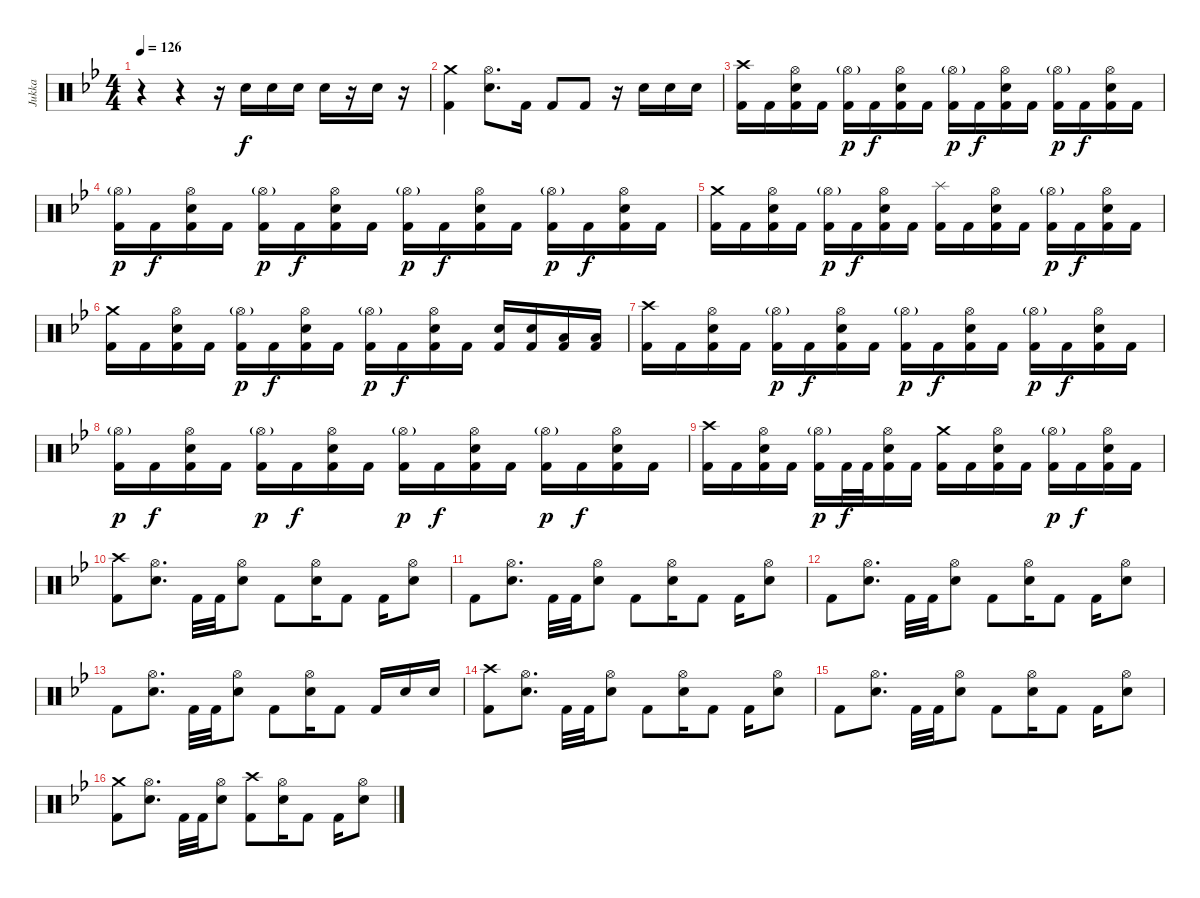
\track ("Jukka" "Jukka") {instrument percussion}
\staff {score}
\articulation defaults
\ts (4 4)
\tempo 126
\clef neutral
\ks gminor
r.4{dy f} r.4 r.16 "Electric Snare (hit)".16 "Electric Snare (hit)".16 "Electric Snare (hit)".16 "Electric Snare (hit)".16 r.16 "Electric Snare (hit)".16 r.16 |
("Crash medium (hit)" "Kick (hit) 2").4 ("Hi-Hat (open)" "Electric Snare (hit)").8{d} "Kick (hit) 2".16 "Kick (hit) 2".8 "Kick (hit) 2".8 r.16 "Electric Snare (hit)".16 "Electric Snare (hit)".16 "Electric Snare (hit)".16 |
("Crash high (hit)" "Kick (hit) 2").16 "Kick (hit) 2".16 ("Hi-Hat (open)" "Electric Snare (hit)" "Kick (hit) 2").16 "Kick (hit) 2".16 ("Hi-Hat (open)"{g} "Kick (hit) 2").16{dy p} "Kick (hit) 2".16{dy f} ("Hi-Hat (open)" "Electric Snare (hit)" "Kick (hit) 2").16 "Kick (hit) 2".16 ("Hi-Hat (open)"{g} "Kick (hit) 2").16{dy p} "Kick (hit) 2".16{dy f} ("Hi-Hat (open)" "Electric Snare (hit)" "Kick (hit) 2").16 "Kick (hit) 2".16 ("Hi-Hat (open)"{g} "Kick (hit) 2").16{dy p} "Kick (hit) 2".16{dy f} ("Hi-Hat (open)" "Electric Snare (hit)" "Kick (hit) 2").16 "Kick (hit) 2".16 |
("Hi-Hat (open)"{g} "Kick (hit) 2").16{dy p} "Kick (hit) 2".16{dy f} ("Hi-Hat (open)" "Electric Snare (hit)" "Kick (hit) 2").16 "Kick (hit) 2".16 ("Hi-Hat (open)"{g} "Kick (hit) 2").16{dy p} "Kick (hit) 2".16{dy f} ("Hi-Hat (open)" "Electric Snare (hit)" "Kick (hit) 2").16 "Kick (hit) 2".16 ("Hi-Hat (open)"{g} "Kick (hit) 2").16{dy p} "Kick (hit) 2".16{dy f} ("Hi-Hat (open)" "Electric Snare (hit)" "Kick (hit) 2").16 "Kick (hit) 2".16 ("Hi-Hat (open)"{g} "Kick (hit) 2").16{dy p} "Kick (hit) 2".16{dy f} ("Hi-Hat (open)" "Electric Snare (hit)" "Kick (hit) 2").16 "Kick (hit) 2".16 |
("Crash medium (hit)" "Kick (hit) 2").16 "Kick (hit) 2".16 ("Hi-Hat (open)" "Electric Snare (hit)" "Kick (hit) 2").16 "Kick (hit) 2".16 ("Hi-Hat (open)"{g} "Kick (hit) 2").16{dy p} "Kick (hit) 2".16{dy f} ("Hi-Hat (open)" "Electric Snare (hit)" "Kick (hit) 2").16 "Kick (hit) 2".16 ("Splash (hit)" "Kick (hit) 2").16 "Kick (hit) 2".16 ("Hi-Hat (open)" "Electric Snare (hit)" "Kick (hit) 2").16 "Kick (hit) 2".16 ("Hi-Hat (open)"{g} "Kick (hit) 2").16{dy p} "Kick (hit) 2".16{dy f} ("Hi-Hat (open)" "Electric Snare (hit)" "Kick (hit) 2").16 "Kick (hit) 2".16 |
("Crash medium (hit)" "Kick (hit) 2").16 "Kick (hit) 2".16 ("Hi-Hat (open)" "Electric Snare (hit)" "Kick (hit) 2").16 "Kick (hit) 2".16 ("Hi-Hat (open)"{g} "Kick (hit) 2").16{dy p} "Kick (hit) 2".16{dy f} ("Hi-Hat (open)" "Electric Snare (hit)" "Kick (hit) 2").16 "Kick (hit) 2".16 ("Hi-Hat (open)"{g} "Kick (hit) 2").16{dy p} "Kick (hit) 2".16{dy f} ("Hi-Hat (open)" "Electric Snare (hit)" "Kick (hit) 2").16 "Kick (hit) 2".16 ("Electric Snare (hit)" "Kick (hit) 2").16 ("Electric Snare (hit)" "Kick (hit) 2").16 ("Low Tom (hit)" "Kick (hit) 2").16 ("Low Tom (hit)" "Kick (hit) 2").16 |
("Crash high (hit)" "Kick (hit) 2").16 "Kick (hit) 2".16 ("Hi-Hat (open)" "Electric Snare (hit)" "Kick (hit) 2").16 "Kick (hit) 2".16 ("Hi-Hat (open)"{g} "Kick (hit) 2").16{dy p} "Kick (hit) 2".16{dy f} ("Hi-Hat (open)" "Electric Snare (hit)" "Kick (hit) 2").16 "Kick (hit) 2".16 ("Hi-Hat (open)"{g} "Kick (hit) 2").16{dy p} "Kick (hit) 2".16{dy f} ("Hi-Hat (open)" "Electric Snare (hit)" "Kick (hit) 2").16 "Kick (hit) 2".16 ("Hi-Hat (open)"{g} "Kick (hit) 2").16{dy p} "Kick (hit) 2".16{dy f} ("Hi-Hat (open)" "Electric Snare (hit)" "Kick (hit) 2").16 "Kick (hit) 2".16 |
("Hi-Hat (open)"{g} "Kick (hit) 2").16{dy p} "Kick (hit) 2".16{dy f} ("Hi-Hat (open)" "Electric Snare (hit)" "Kick (hit) 2").16 "Kick (hit) 2".16 ("Hi-Hat (open)"{g} "Kick (hit) 2").16{dy p} "Kick (hit) 2".16{dy f} ("Hi-Hat (open)" "Electric Snare (hit)" "Kick (hit) 2").16 "Kick (hit) 2".16 ("Hi-Hat (open)"{g} "Kick (hit) 2").16{dy p} "Kick (hit) 2".16{dy f} ("Hi-Hat (open)" "Electric Snare (hit)" "Kick (hit) 2").16 "Kick (hit) 2".16 ("Hi-Hat (open)"{g} "Kick (hit) 2").16{dy p} "Kick (hit) 2".16{dy f} ("Hi-Hat (open)" "Electric Snare (hit)" "Kick (hit) 2").16 "Kick (hit) 2".16 |
("Crash high (hit)" "Kick (hit) 2").16 "Kick (hit) 2".16 ("Hi-Hat (open)" "Electric Snare (hit)" "Kick (hit) 2").16 "Kick (hit) 2".16 ("Hi-Hat (open)"{g} "Kick (hit) 2").16{dy p} "Kick (hit) 2".32{dy f} "Kick (hit) 2".32 ("Hi-Hat (open)" "Electric Snare (hit)" "Kick (hit) 2").16 "Kick (hit) 2".16 ("Crash medium (hit)" "Kick (hit) 2").16 "Kick (hit) 2".16 ("Hi-Hat (open)" "Electric Snare (hit)" "Kick (hit) 2").16 "Kick (hit) 2".16 ("Hi-Hat (open)"{g} "Kick (hit) 2").16{dy p} "Kick (hit) 2".16{dy f} ("Hi-Hat (open)" "Electric Snare (hit)" "Kick (hit) 2").16 "Kick (hit) 2".16 |
("Crash high (hit)" "Kick (hit) 2").8 ("Hi-Hat (open)" "Electric Snare (hit)").8{d} "Kick (hit) 2".32 "Kick (hit) 2".32 ("Hi-Hat (open)" "Electric Snare (hit)").8 "Kick (hit) 2".8 ("Hi-Hat (open)" "Electric Snare (hit)").16 "Kick (hit) 2".8 "Kick (hit) 2".16 ("Hi-Hat (open)" "Electric Snare (hit)").8 |
"Kick (hit) 2".8 ("Hi-Hat (open)" "Electric Snare (hit)").8{d} "Kick (hit) 2".32 "Kick (hit) 2".32 ("Hi-Hat (open)" "Electric Snare (hit)").8 "Kick (hit) 2".8 ("Hi-Hat (open)" "Electric Snare (hit)").16 "Kick (hit) 2".8 "Kick (hit) 2".16 ("Hi-Hat (open)" "Electric Snare (hit)").8 |
"Kick (hit) 2".8 ("Hi-Hat (open)" "Electric Snare (hit)").8{d} "Kick (hit) 2".32 "Kick (hit) 2".32 ("Hi-Hat (open)" "Electric Snare (hit)").8 "Kick (hit) 2".8 ("Hi-Hat (open)" "Electric Snare (hit)").16 "Kick (hit) 2".8 "Kick (hit) 2".16 ("Hi-Hat (open)" "Electric Snare (hit)").8 |
"Kick (hit) 2".8 ("Hi-Hat (open)" "Electric Snare (hit)").8{d} "Kick (hit) 2".32 "Kick (hit) 2".32 ("Hi-Hat (open)" "Electric Snare (hit)").8 "Kick (hit) 2".8 ("Hi-Hat (open)" "Electric Snare (hit)").16 "Kick (hit) 2".8 "Kick (hit) 2".16 "Electric Snare (hit)".16 "Electric Snare (hit)".16 |
("Crash high (hit)" "Kick (hit) 2").8 ("Hi-Hat (open)" "Electric Snare (hit)").8{d} "Kick (hit) 2".32 "Kick (hit) 2".32 ("Hi-Hat (open)" "Electric Snare (hit)").8 "Kick (hit) 2".8 ("Hi-Hat (open)" "Electric Snare (hit)").16 "Kick (hit) 2".8 "Kick (hit) 2".16 ("Hi-Hat (open)" "Electric Snare (hit)").8 |
"Kick (hit) 2".8 ("Hi-Hat (open)" "Electric Snare (hit)").8{d} "Kick (hit) 2".32 "Kick (hit) 2".32 ("Hi-Hat (open)" "Electric Snare (hit)").8 "Kick (hit) 2".8 ("Hi-Hat (open)" "Electric Snare (hit)").16 "Kick (hit) 2".8 "Kick (hit) 2".16 ("Hi-Hat (open)" "Electric Snare (hit)").8 |
("Crash medium (hit)" "Kick (hit) 2").8 ("Hi-Hat (open)" "Electric Snare (hit)").8{d} "Kick (hit) 2".32 "Kick (hit) 2".32 ("Hi-Hat (open)" "Electric Snare (hit)").8 ("Crash high (hit)" "Kick (hit) 2").8 ("Hi-Hat (open)" "Electric Snare (hit)").16 "Kick (hit) 2".8 "Kick (hit) 2".16 ("Hi-Hat (open)" "Electric Snare (hit)").8
